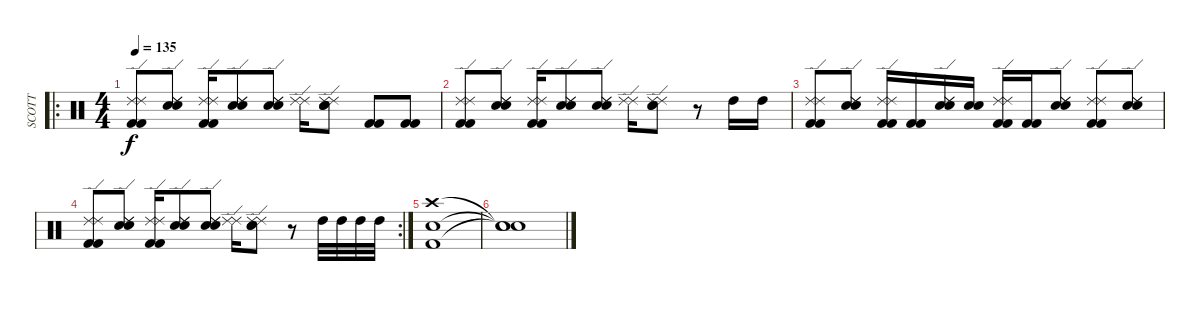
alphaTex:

\track ("SCOTT" "SCOTT") {instrument percussion}
\staff {score}
\articulation defaults
\ro
\ts (4 4)
\tempo 135
\clef neutral
\ks c
("Ride (edge) 2" "Ride (edge) 2" "Kick (hit) 2" "Kick (hit) 2").8{dy f} ("Ride (edge) 2" "Ride (edge) 2" "Snare (hit) 2" "Snare (hit) 2").8 ("Ride (edge) 2" "Ride (edge) 2" "Kick (hit) 2" "Kick (hit) 2").16 ("Ride (edge) 2" "Ride (edge) 2" "Snare (hit) 2" "Snare (hit) 2").8 ("Ride (edge) 2" "Ride (edge) 2" "Snare (hit) 2" "Snare (hit) 2").8 ("Ride (edge) 2" "Ride (edge) 2").16 ("Ride (edge) 2" "Ride (edge) 2" "Snare (hit) 2" "Snare (hit) 2").8 ("Kick (hit) 2" "Kick (hit) 2").8 ("Kick (hit) 2" "Kick (hit) 2").8 |
("Ride (edge) 2" "Ride (edge) 2" "Kick (hit) 2" "Kick (hit) 2").8 ("Ride (edge) 2" "Ride (edge) 2" "Snare (hit) 2" "Snare (hit) 2").8 ("Ride (edge) 2" "Ride (edge) 2" "Kick (hit) 2" "Kick (hit) 2").16 ("Ride (edge) 2" "Ride (edge) 2" "Snare (hit) 2" "Snare (hit) 2").8 ("Ride (edge) 2" "Ride (edge) 2" "Snare (hit) 2" "Snare (hit) 2").8 ("Ride (edge) 2" "Ride (edge) 2").16 ("Ride (edge) 2" "Ride (edge) 2" "Snare (hit) 2" "Snare (hit) 2").8 r.8 "High Tom (hit)".16 "High Tom (hit)".16 |
("Ride (edge) 2" "Ride (edge) 2" "Kick (hit) 2" "Kick (hit) 2").8 ("Ride (edge) 2" "Ride (edge) 2" "Snare (hit) 2" "Snare (hit) 2").8 ("Ride (edge) 2" "Ride (edge) 2" "Kick (hit) 2" "Kick (hit) 2").16 ("Kick (hit) 2" "Kick (hit) 2").16 ("Ride (edge) 2" "Ride (edge) 2" "Snare (hit) 2" "Snare (hit) 2").16 ("Snare (hit) 2" "Snare (hit) 2").16 ("Ride (edge) 2" "Ride (edge) 2" "Kick (hit) 2" "Kick (hit) 2").16 ("Kick (hit) 2" "Kick (hit) 2").16 ("Ride (edge) 2" "Ride (edge) 2" "Snare (hit) 2" "Snare (hit) 2").8 ("Ride (edge) 2" "Ride (edge) 2" "Kick (hit) 2" "Kick (hit) 2").8 ("Ride (edge) 2" "Ride (edge) 2" "Snare (hit) 2" "Snare (hit) 2").8 |
\rc 2
("Ride (edge) 2" "Ride (edge) 2" "Kick (hit) 2" "Kick (hit) 2").8 ("Ride (edge) 2" "Ride (edge) 2" "Snare (hit) 2" "Snare (hit) 2").8 ("Ride (edge) 2" "Ride (edge) 2" "Kick (hit) 2" "Kick (hit) 2").16 ("Ride (edge) 2" "Ride (edge) 2" "Snare (hit) 2" "Snare (hit) 2").8 ("Ride (edge) 2" "Ride (edge) 2" "Snare (hit) 2" "Snare (hit) 2").8 ("Ride (edge) 2" "Ride (edge) 2").16 ("Ride (edge) 2" "Ride (edge) 2" "Snare (hit) 2" "Snare (hit) 2").8 r.8 "High Tom (hit)".32 "High Tom (hit)".32 "High Tom (hit)".32 "High Tom (hit)".32 |
("Snare (hit) 2" "Crash high (hit)" "Kick (hit) 2").1 |
("Snare (hit)"{t} "Snare (hit)"{t} "Snare (hit)"{t}).1
